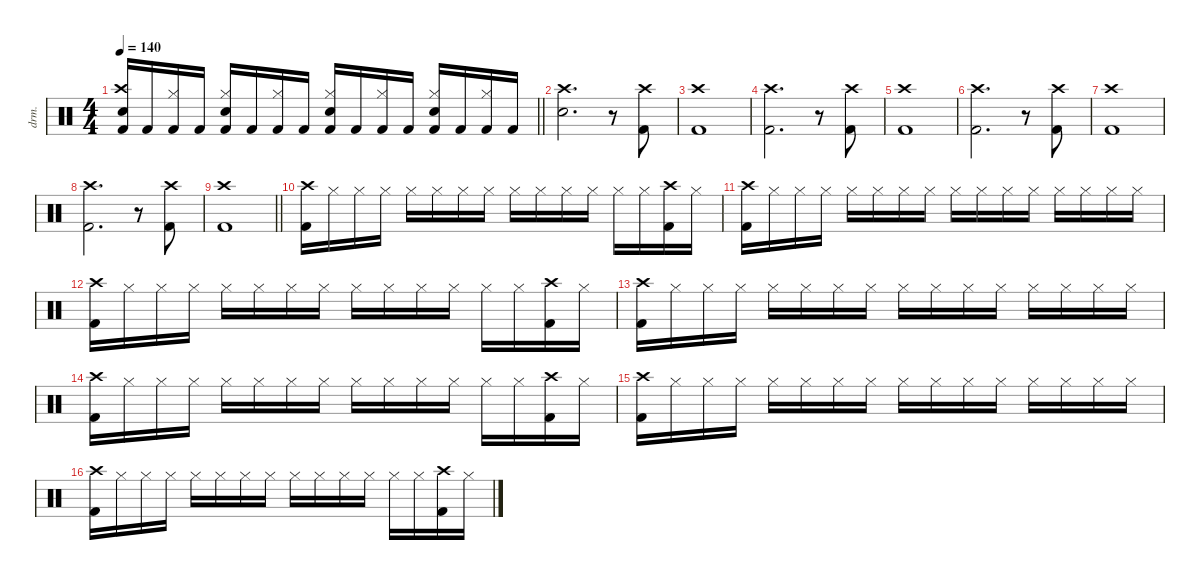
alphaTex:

\defaultSystemsLayout 4
\hideDynamics
\bracketExtendMode nobrackets
\otherSystemsTrackNameOrientation horizontal
\track ("Drums" "drm.") {defaultSystemsLayout 4 instrument percussion}
\staff {score}
\articulation defaults
\ts (4 4)
\tempo 140
\clef neutral
\barLineRight lightlight
\ks aminor
("Crash high (hit)" "Snare (hit) 2" "Kick (hit) 2").16{dy f beam Up} "Kick (hit) 2".16{beam Up} ("Hi-Hat (closed)" "Kick (hit) 2").16{beam Up} "Kick (hit) 2".16{beam Up} ("Hi-Hat (closed)" "Snare (hit) 2" "Kick (hit) 2").16{beam Up} "Kick (hit) 2".16{beam Up} ("Hi-Hat (closed)" "Kick (hit) 2").16{beam Up} "Kick (hit) 2".16{beam Up} ("Hi-Hat (closed)" "Snare (hit) 2" "Kick (hit) 2").16{beam Up} "Kick (hit) 2".16{beam Up} ("Hi-Hat (closed)" "Kick (hit) 2").16{beam Up} "Kick (hit) 2".16{beam Up} ("Hi-Hat (closed)" "Snare (hit) 2" "Kick (hit) 2").16{beam Up} "Kick (hit) 2".16{beam Up} ("Hi-Hat (closed)" "Kick (hit) 2").16{beam Up} "Kick (hit) 2".16{beam Up} |
("Crash high (hit)" "Snare (hit) 2").2{d beam Down} r.8{beam Down} ("Crash high (hit)" "Kick (hit) 2").8{beam Down} |
("Crash high (hit)" "Kick (hit) 2").1{beam Down} |
("Crash high (hit)" "Kick (hit) 2").2{d beam Down} r.8{beam Down} ("Crash high (hit)" "Kick (hit) 2").8{beam Down} |
("Crash high (hit)" "Kick (hit) 2").1{beam Down} |
("Crash high (hit)" "Kick (hit) 2").2{d beam Down} r.8{beam Down} ("Crash high (hit)" "Kick (hit) 2").8{beam Down} |
("Crash high (hit)" "Kick (hit) 2").1{beam Down} |
("Crash high (hit)" "Kick (hit) 2").2{d beam Down} r.8{beam Down} ("Crash high (hit)" "Kick (hit) 2").8{beam Down} |
\barLineRight lightlight
("Crash high (hit)" "Kick (hit) 2").1{beam Down} |
("Crash high (hit)" "Kick (hit) 2").16{beam Down} "Hi-Hat (closed)".16{beam Down} "Hi-Hat (closed)".16{beam Down} "Hi-Hat (closed)".16{beam Down} "Hi-Hat (closed)".16{beam Down} "Hi-Hat (closed)".16{beam Down} "Hi-Hat (closed)".16{beam Down} "Hi-Hat (closed)".16{beam Down} "Hi-Hat (closed)".16{beam Down} "Hi-Hat (closed)".16{beam Down} "Hi-Hat (closed)".16{beam Down} "Hi-Hat (closed)".16{beam Down} "Hi-Hat (closed)".16{beam Down} "Hi-Hat (closed)".16{beam Down} ("Crash high (hit)" "Kick (hit) 2").16{beam Down} "Hi-Hat (closed)".16{beam Down} |
("Crash high (hit)" "Kick (hit) 2").16{beam Down} "Hi-Hat (closed)".16{beam Down} "Hi-Hat (closed)".16{beam Down} "Hi-Hat (closed)".16{beam Down} "Hi-Hat (closed)".16{beam Down} "Hi-Hat (closed)".16{beam Down} "Hi-Hat (closed)".16{beam Down} "Hi-Hat (closed)".16{beam Down} "Hi-Hat (closed)".16{beam Down} "Hi-Hat (closed)".16{beam Down} "Hi-Hat (closed)".16{beam Down} "Hi-Hat (closed)".16{beam Down} "Hi-Hat (closed)".16{beam Down} "Hi-Hat (closed)".16{beam Down} "Hi-Hat (closed)".16{beam Down} "Hi-Hat (closed)".16{beam Down} |
("Crash high (hit)" "Kick (hit) 2").16{beam Down} "Hi-Hat (closed)".16{beam Down} "Hi-Hat (closed)".16{beam Down} "Hi-Hat (closed)".16{beam Down} "Hi-Hat (closed)".16{beam Down} "Hi-Hat (closed)".16{beam Down} "Hi-Hat (closed)".16{beam Down} "Hi-Hat (closed)".16{beam Down} "Hi-Hat (closed)".16{beam Down} "Hi-Hat (closed)".16{beam Down} "Hi-Hat (closed)".16{beam Down} "Hi-Hat (closed)".16{beam Down} "Hi-Hat (closed)".16{beam Down} "Hi-Hat (closed)".16{beam Down} ("Crash high (hit)" "Kick (hit) 2").16{beam Down} "Hi-Hat (closed)".16{beam Down} |
("Crash high (hit)" "Kick (hit) 2").16{beam Down} "Hi-Hat (closed)".16{beam Down} "Hi-Hat (closed)".16{beam Down} "Hi-Hat (closed)".16{beam Down} "Hi-Hat (closed)".16{beam Down} "Hi-Hat (closed)".16{beam Down} "Hi-Hat (closed)".16{beam Down} "Hi-Hat (closed)".16{beam Down} "Hi-Hat (closed)".16{beam Down} "Hi-Hat (closed)".16{beam Down} "Hi-Hat (closed)".16{beam Down} "Hi-Hat (closed)".16{beam Down} "Hi-Hat (closed)".16{beam Down} "Hi-Hat (closed)".16{beam Down} "Hi-Hat (closed)".16{beam Down} "Hi-Hat (closed)".16{beam Down} |
("Crash high (hit)" "Kick (hit) 2").16{beam Down} "Hi-Hat (closed)".16{beam Down} "Hi-Hat (closed)".16{beam Down} "Hi-Hat (closed)".16{beam Down} "Hi-Hat (closed)".16{beam Down} "Hi-Hat (closed)".16{beam Down} "Hi-Hat (closed)".16{beam Down} "Hi-Hat (closed)".16{beam Down} "Hi-Hat (closed)".16{beam Down} "Hi-Hat (closed)".16{beam Down} "Hi-Hat (closed)".16{beam Down} "Hi-Hat (closed)".16{beam Down} "Hi-Hat (closed)".16{beam Down} "Hi-Hat (closed)".16{beam Down} ("Crash high (hit)" "Kick (hit) 2").16{beam Down} "Hi-Hat (closed)".16{beam Down} |
("Crash high (hit)" "Kick (hit) 2").16{beam Down} "Hi-Hat (closed)".16{beam Down} "Hi-Hat (closed)".16{beam Down} "Hi-Hat (closed)".16{beam Down} "Hi-Hat (closed)".16{beam Down} "Hi-Hat (closed)".16{beam Down} "Hi-Hat (closed)".16{beam Down} "Hi-Hat (closed)".16{beam Down} "Hi-Hat (closed)".16{beam Down} "Hi-Hat (closed)".16{beam Down} "Hi-Hat (closed)".16{beam Down} "Hi-Hat (closed)".16{beam Down} "Hi-Hat (closed)".16{beam Down} "Hi-Hat (closed)".16{beam Down} "Hi-Hat (closed)".16{beam Down} "Hi-Hat (closed)".16{beam Down} |
("Crash high (hit)" "Kick (hit) 2").16{beam Down} "Hi-Hat (closed)".16{beam Down} "Hi-Hat (closed)".16{beam Down} "Hi-Hat (closed)".16{beam Down} "Hi-Hat (closed)".16{beam Down} "Hi-Hat (closed)".16{beam Down} "Hi-Hat (closed)".16{beam Down} "Hi-Hat (closed)".16{beam Down} "Hi-Hat (closed)".16{beam Down} "Hi-Hat (closed)".16{beam Down} "Hi-Hat (closed)".16{beam Down} "Hi-Hat (closed)".16{beam Down} "Hi-Hat (closed)".16{beam Down} "Hi-Hat (closed)".16{beam Down} ("Crash high (hit)" "Kick (hit) 2").16{beam Down} "Hi-Hat (closed)".16{beam Down}
